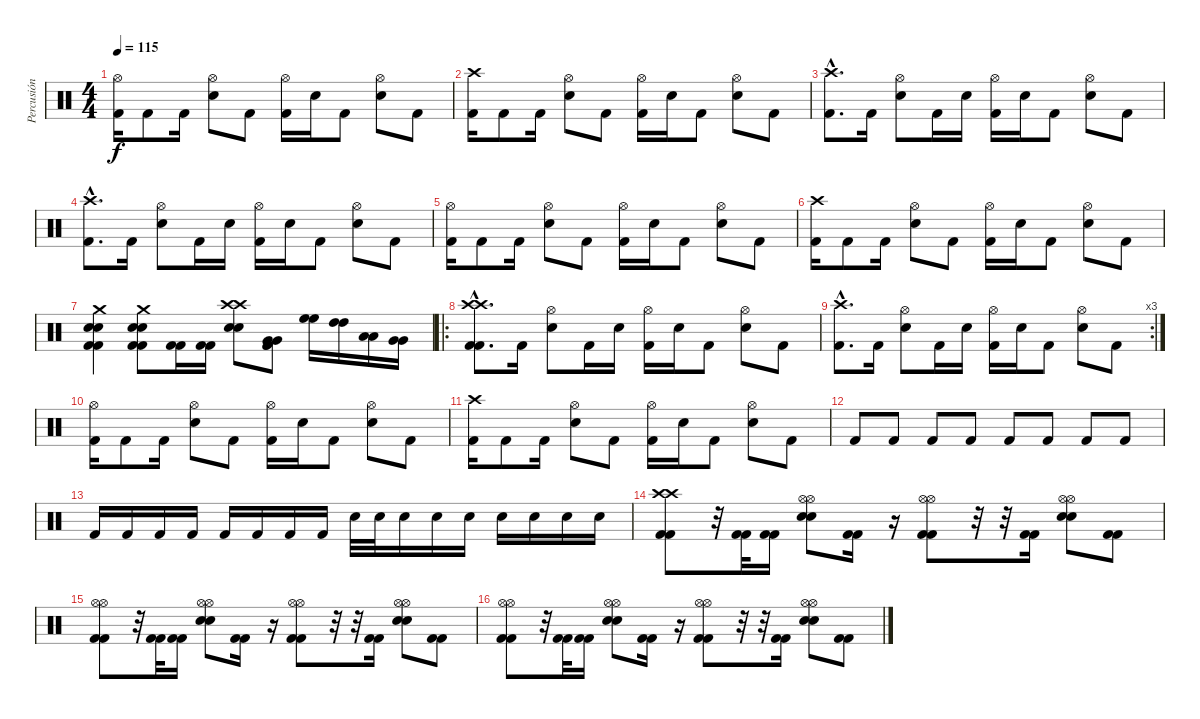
\track ("Percusión" "Percusión") {instrument percussion}
\staff {score}
\articulation defaults
\ts (4 4)
\tempo 115
\clef neutral
\ks c
("Hi-Hat (open)" "Kick (hit) 2").16{dy f} "Kick (hit) 2".8 "Kick (hit) 2".16 ("Hi-Hat (open)" "Electric Snare (hit)").8 "Kick (hit) 2".8 ("Hi-Hat (open)" "Kick (hit) 2").16 "Electric Snare (hit)".16 "Kick (hit) 2".8 ("Hi-Hat (open)" "Electric Snare (hit)").8 "Kick (hit) 2".8 |
("Crash high (hit)" "Kick (hit) 2").16 "Kick (hit) 2".8 "Kick (hit) 2".16 ("Hi-Hat (open)" "Electric Snare (hit)").8 "Kick (hit) 2".8 ("Hi-Hat (open)" "Kick (hit) 2").16 "Electric Snare (hit)".16 "Kick (hit) 2".8 ("Hi-Hat (open)" "Electric Snare (hit)").8 "Kick (hit) 2".8 |
("Crash high (hit)"{hac} "Kick (hit) 2"{hac}).8{d} "Kick (hit) 2".16 ("Hi-Hat (open)" "Electric Snare (hit)").8 "Kick (hit) 2".16 "Electric Snare (hit)".16 ("Hi-Hat (open)" "Kick (hit) 2").16 "Electric Snare (hit)".16 "Kick (hit) 2".8 ("Hi-Hat (open)" "Electric Snare (hit)").8 "Kick (hit) 2".8 |
("Crash high (hit)"{hac} "Kick (hit) 2"{hac}).8{d} "Kick (hit) 2".16 ("Hi-Hat (open)" "Electric Snare (hit)").8 "Kick (hit) 2".16 "Electric Snare (hit)".16 ("Hi-Hat (open)" "Kick (hit) 2").16 "Electric Snare (hit)".16 "Kick (hit) 2".8 ("Hi-Hat (open)" "Electric Snare (hit)").8 "Kick (hit) 2".8 |
("Hi-Hat (open)" "Kick (hit) 2").16 "Kick (hit) 2".8 "Kick (hit) 2".16 ("Hi-Hat (open)" "Electric Snare (hit)").8 "Kick (hit) 2".8 ("Hi-Hat (open)" "Kick (hit) 2").16 "Electric Snare (hit)".16 "Kick (hit) 2".8 ("Hi-Hat (open)" "Electric Snare (hit)").8 "Kick (hit) 2".8 |
("Crash high (hit)" "Kick (hit) 2").16 "Kick (hit) 2".8 "Kick (hit) 2".16 ("Hi-Hat (open)" "Electric Snare (hit)").8 "Kick (hit) 2".8 ("Hi-Hat (open)" "Kick (hit) 2").16 "Electric Snare (hit)".16 "Kick (hit) 2".8 ("Hi-Hat (open)" "Electric Snare (hit)").8 "Kick (hit) 2".8 |
("Crash medium (hit)" "Electric Snare (hit)" "Electric Snare (hit)" "Kick (hit) 2" "Kick (hit) 2").4 ("Crash medium (hit)" "Electric Snare (hit)" "Electric Snare (hit)" "Kick (hit) 2" "Kick (hit) 2").8 ("Kick (hit) 2" "Kick (hit) 2").16 ("Kick (hit) 2" "Kick (hit) 2").16 ("Crash high (hit)" "Crash high (hit)" "Electric Snare (hit)" "Electric Snare (hit)").8 ("Very Low Tom (hit)" "Very Low Tom (hit)" "Kick (hit) 2" "Kick (hit) 2").8 ("High Floor Tom (hit)" "High Floor Tom (hit)").16 ("High Tom (hit)" "High Tom (hit)").16 ("Low Tom (hit)" "Low Tom (hit)").16 ("Very Low Tom (hit)" "Very Low Tom (hit)").16 |
\ro
("Crash high (hit)"{hac} "Crash high (hit)"{hac} "Kick (hit) 2"{hac} "Kick (hit) 2"{hac}).8{d} "Kick (hit) 2".16 ("Hi-Hat (open)" "Electric Snare (hit)").8 "Kick (hit) 2".16 "Electric Snare (hit)".16 ("Hi-Hat (open)" "Kick (hit) 2").16 "Electric Snare (hit)".16 "Kick (hit) 2".8 ("Hi-Hat (open)" "Electric Snare (hit)").8 "Kick (hit) 2".8 |
\rc 3
("Crash high (hit)"{hac} "Kick (hit) 2"{hac}).8{d} "Kick (hit) 2".16 ("Hi-Hat (open)" "Electric Snare (hit)").8 "Kick (hit) 2".16 "Electric Snare (hit)".16 ("Hi-Hat (open)" "Kick (hit) 2").16 "Electric Snare (hit)".16 "Kick (hit) 2".8 ("Hi-Hat (open)" "Electric Snare (hit)").8 "Kick (hit) 2".8 |
("Hi-Hat (open)" "Kick (hit) 2").16 "Kick (hit) 2".8 "Kick (hit) 2".16 ("Hi-Hat (open)" "Electric Snare (hit)").8 "Kick (hit) 2".8 ("Hi-Hat (open)" "Kick (hit) 2").16 "Electric Snare (hit)".16 "Kick (hit) 2".8 ("Hi-Hat (open)" "Electric Snare (hit)").8 "Kick (hit) 2".8 |
("Crash high (hit)" "Kick (hit) 2").16 "Kick (hit) 2".8 "Kick (hit) 2".16 ("Hi-Hat (open)" "Electric Snare (hit)").8 "Kick (hit) 2".8 ("Hi-Hat (open)" "Kick (hit) 2").16 "Electric Snare (hit)".16 "Kick (hit) 2".8 ("Hi-Hat (open)" "Electric Snare (hit)").8 "Kick (hit) 2".8 |
"Kick (hit) 2".8 "Kick (hit) 2".8 "Kick (hit) 2".8 "Kick (hit) 2".8 "Kick (hit) 2".8 "Kick (hit) 2".8 "Kick (hit) 2".8 "Kick (hit) 2".8 |
"Kick (hit) 2".16 "Kick (hit) 2".16 "Kick (hit) 2".16 "Kick (hit) 2".16 "Kick (hit) 2".16 "Kick (hit) 2".16 "Kick (hit) 2".16 "Kick (hit) 2".16 "Electric Snare (hit)".32 "Electric Snare (hit)".32 "Electric Snare (hit)".16 "Electric Snare (hit)".16 "Electric Snare (hit)".16 "Electric Snare (hit)".16 "Electric Snare (hit)".16 "Electric Snare (hit)".16 "Electric Snare (hit)".16 |
("Crash high (hit)" "Crash high (hit)" "Kick (hit) 2" "Kick (hit) 2").8 r.32 ("Kick (hit) 2" "Kick (hit) 2").32 ("Kick (hit) 2" "Kick (hit) 2").16 ("Hi-Hat (open)" "Hi-Hat (open)" "Electric Snare (hit)" "Electric Snare (hit)").8 ("Kick (hit) 2" "Kick (hit) 2").16 r.16 ("Hi-Hat (open)" "Hi-Hat (open)" "Kick (hit) 2" "Kick (hit) 2").8 r.32 r.32 ("Kick (hit) 2" "Kick (hit) 2").16 ("Hi-Hat (open)" "Hi-Hat (open)" "Electric Snare (hit)" "Electric Snare (hit)").8 ("Kick (hit) 2" "Kick (hit) 2").8 |
("Hi-Hat (open)" "Hi-Hat (open)" "Kick (hit) 2" "Kick (hit) 2").8 r.32 ("Kick (hit) 2" "Kick (hit) 2").32 ("Kick (hit) 2" "Kick (hit) 2").16 ("Hi-Hat (open)" "Hi-Hat (open)" "Electric Snare (hit)" "Electric Snare (hit)").8 ("Kick (hit) 2" "Kick (hit) 2").16 r.16 ("Hi-Hat (open)" "Hi-Hat (open)" "Kick (hit) 2" "Kick (hit) 2").8 r.32 r.32 ("Kick (hit) 2" "Kick (hit) 2").16 ("Hi-Hat (open)" "Hi-Hat (open)" "Electric Snare (hit)" "Electric Snare (hit)").8 ("Kick (hit) 2" "Kick (hit) 2").8 |
("Hi-Hat (open)" "Hi-Hat (open)" "Kick (hit) 2" "Kick (hit) 2").8 r.32 ("Kick (hit) 2" "Kick (hit) 2").32 ("Kick (hit) 2" "Kick (hit) 2").16 ("Hi-Hat (open)" "Hi-Hat (open)" "Electric Snare (hit)" "Electric Snare (hit)").8 ("Kick (hit) 2" "Kick (hit) 2").16 r.16 ("Hi-Hat (open)" "Hi-Hat (open)" "Kick (hit) 2" "Kick (hit) 2").8 r.32 r.32 ("Kick (hit) 2" "Kick (hit) 2").16 ("Hi-Hat (open)" "Hi-Hat (open)" "Electric Snare (hit)" "Electric Snare (hit)").8 ("Kick (hit) 2" "Kick (hit) 2").8
